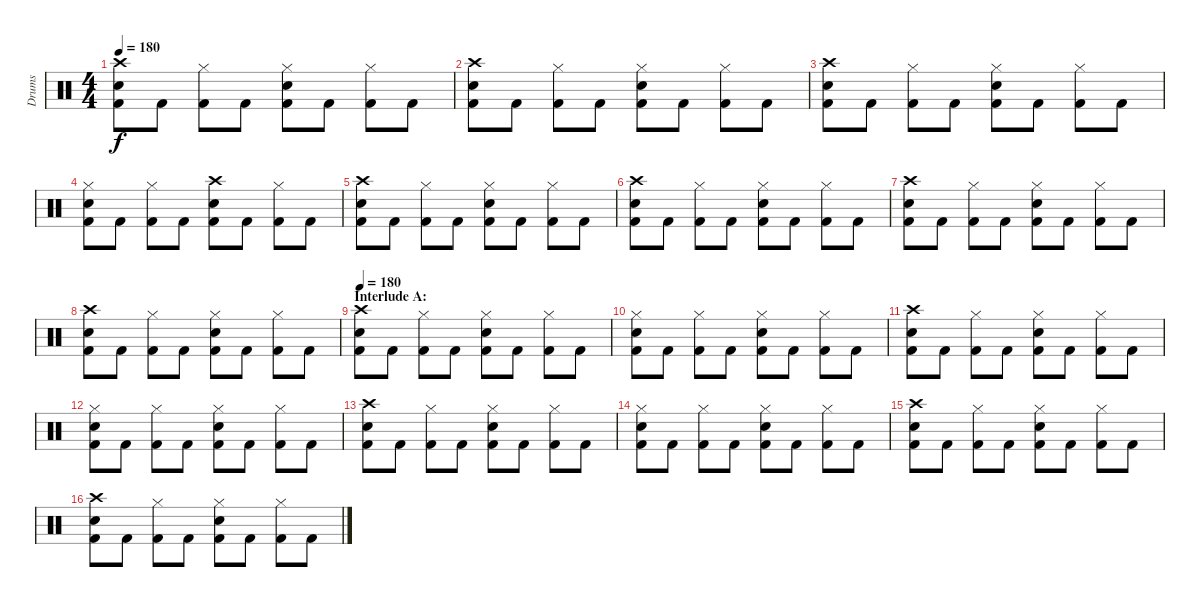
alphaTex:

\track ("Drums" "Drums") {instrument percussion}
\staff {score}
\articulation defaults
\ts (4 4)
\tempo 180
\clef neutral
\ks c
("Crash high (hit)" "Electric Snare (hit)" "Kick (hit) 2").8{dy f} "Kick (hit) 2".8 ("Hi-Hat (closed)" "Kick (hit) 2").8 "Kick (hit) 2".8 ("Hi-Hat (closed)" "Electric Snare (hit)" "Kick (hit) 2").8 "Kick (hit) 2".8 ("Hi-Hat (closed)" "Kick (hit) 2").8 "Kick (hit) 2".8 |
("Crash high (hit)" "Electric Snare (hit)" "Kick (hit) 2").8 "Kick (hit) 2".8 ("Hi-Hat (closed)" "Kick (hit) 2").8 "Kick (hit) 2".8 ("Hi-Hat (closed)" "Electric Snare (hit)" "Kick (hit) 2").8 "Kick (hit) 2".8 ("Hi-Hat (closed)" "Kick (hit) 2").8 "Kick (hit) 2".8 |
("Crash high (hit)" "Electric Snare (hit)" "Kick (hit) 2").8 "Kick (hit) 2".8 ("Hi-Hat (closed)" "Kick (hit) 2").8 "Kick (hit) 2".8 ("Hi-Hat (closed)" "Electric Snare (hit)" "Kick (hit) 2").8 "Kick (hit) 2".8 ("Hi-Hat (closed)" "Kick (hit) 2").8 "Kick (hit) 2".8 |
("Hi-Hat (closed)" "Electric Snare (hit)" "Kick (hit) 2").8 "Kick (hit) 2".8 ("Hi-Hat (closed)" "Kick (hit) 2").8 "Kick (hit) 2".8 ("Crash high (hit)" "Electric Snare (hit)" "Kick (hit) 2").8 "Kick (hit) 2".8 ("Hi-Hat (closed)" "Kick (hit) 2").8 "Kick (hit) 2".8 |
("Crash high (hit)" "Electric Snare (hit)" "Kick (hit) 2").8 "Kick (hit) 2".8 ("Hi-Hat (closed)" "Kick (hit) 2").8 "Kick (hit) 2".8 ("Hi-Hat (closed)" "Electric Snare (hit)" "Kick (hit) 2").8 "Kick (hit) 2".8 ("Hi-Hat (closed)" "Kick (hit) 2").8 "Kick (hit) 2".8 |
("Crash high (hit)" "Electric Snare (hit)" "Kick (hit) 2").8 "Kick (hit) 2".8 ("Hi-Hat (closed)" "Kick (hit) 2").8 "Kick (hit) 2".8 ("Hi-Hat (closed)" "Electric Snare (hit)" "Kick (hit) 2").8 "Kick (hit) 2".8 ("Hi-Hat (closed)" "Kick (hit) 2").8 "Kick (hit) 2".8 |
("Crash high (hit)" "Electric Snare (hit)" "Kick (hit) 2").8 "Kick (hit) 2".8 ("Hi-Hat (closed)" "Kick (hit) 2").8 "Kick (hit) 2".8 ("Hi-Hat (closed)" "Electric Snare (hit)" "Kick (hit) 2").8 "Kick (hit) 2".8 ("Hi-Hat (closed)" "Kick (hit) 2").8 "Kick (hit) 2".8 |
("Crash high (hit)" "Electric Snare (hit)" "Kick (hit) 2").8 "Kick (hit) 2".8 ("Hi-Hat (closed)" "Kick (hit) 2").8 "Kick (hit) 2".8 ("Hi-Hat (closed)" "Electric Snare (hit)" "Kick (hit) 2").8 "Kick (hit) 2".8 ("Hi-Hat (closed)" "Kick (hit) 2").8 "Kick (hit) 2".8 |
\section ("" "Interlude A:")
\tempo 180
("Crash high (hit)" "Electric Snare (hit)" "Kick (hit) 2").8 "Kick (hit) 2".8 ("Hi-Hat (closed)" "Kick (hit) 2").8 "Kick (hit) 2".8 ("Hi-Hat (closed)" "Electric Snare (hit)" "Kick (hit) 2").8 "Kick (hit) 2".8 ("Hi-Hat (closed)" "Kick (hit) 2").8 "Kick (hit) 2".8 |
("Hi-Hat (closed)" "Electric Snare (hit)" "Kick (hit) 2").8 "Kick (hit) 2".8 ("Hi-Hat (closed)" "Kick (hit) 2").8 "Kick (hit) 2".8 ("Hi-Hat (closed)" "Electric Snare (hit)" "Kick (hit) 2").8 "Kick (hit) 2".8 ("Hi-Hat (closed)" "Kick (hit) 2").8 "Kick (hit) 2".8 |
("Crash high (hit)" "Electric Snare (hit)" "Kick (hit) 2").8 "Kick (hit) 2".8 ("Hi-Hat (closed)" "Kick (hit) 2").8 "Kick (hit) 2".8 ("Hi-Hat (closed)" "Electric Snare (hit)" "Kick (hit) 2").8 "Kick (hit) 2".8 ("Hi-Hat (closed)" "Kick (hit) 2").8 "Kick (hit) 2".8 |
("Hi-Hat (closed)" "Electric Snare (hit)" "Kick (hit) 2").8 "Kick (hit) 2".8 ("Hi-Hat (closed)" "Kick (hit) 2").8 "Kick (hit) 2".8 ("Hi-Hat (closed)" "Electric Snare (hit)" "Kick (hit) 2").8 "Kick (hit) 2".8 ("Hi-Hat (closed)" "Kick (hit) 2").8 "Kick (hit) 2".8 |
("Crash high (hit)" "Electric Snare (hit)" "Kick (hit) 2").8 "Kick (hit) 2".8 ("Hi-Hat (closed)" "Kick (hit) 2").8 "Kick (hit) 2".8 ("Hi-Hat (closed)" "Electric Snare (hit)" "Kick (hit) 2").8 "Kick (hit) 2".8 ("Hi-Hat (closed)" "Kick (hit) 2").8 "Kick (hit) 2".8 |
("Hi-Hat (closed)" "Electric Snare (hit)" "Kick (hit) 2").8 "Kick (hit) 2".8 ("Hi-Hat (closed)" "Kick (hit) 2").8 "Kick (hit) 2".8 ("Hi-Hat (closed)" "Electric Snare (hit)" "Kick (hit) 2").8 "Kick (hit) 2".8 ("Hi-Hat (closed)" "Kick (hit) 2").8 "Kick (hit) 2".8 |
("Crash high (hit)" "Electric Snare (hit)" "Kick (hit) 2").8 "Kick (hit) 2".8 ("Hi-Hat (closed)" "Kick (hit) 2").8 "Kick (hit) 2".8 ("Hi-Hat (closed)" "Electric Snare (hit)" "Kick (hit) 2").8 "Kick (hit) 2".8 ("Hi-Hat (closed)" "Kick (hit) 2").8 "Kick (hit) 2".8 |
("Crash high (hit)" "Electric Snare (hit)" "Kick (hit) 2").8 "Kick (hit) 2".8 ("Hi-Hat (closed)" "Kick (hit) 2").8 "Kick (hit) 2".8 ("Hi-Hat (closed)" "Electric Snare (hit)" "Kick (hit) 2").8 "Kick (hit) 2".8 ("Hi-Hat (closed)" "Kick (hit) 2").8 "Kick (hit) 2".8
